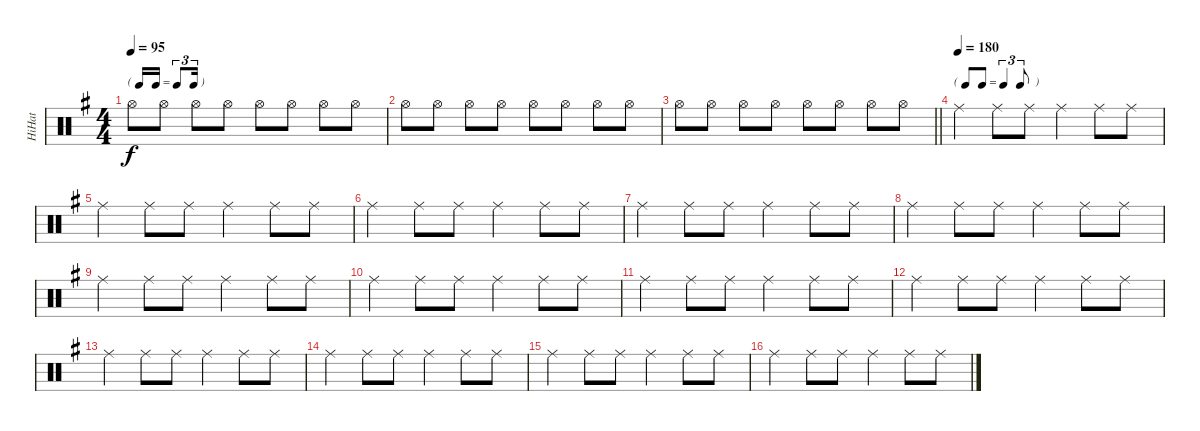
\track ("HiHat" "HiHat") {instrument percussion}
\staff {score}
\articulation defaults
\ts (4 4)
\tf triplet16th
\tempo 95
\clef neutral
\ks eminor "Hi-Hat (open)".8{dy f} "Hi-Hat (open)".8 "Hi-Hat (open)".8 "Hi-Hat (open)".8 "Hi-Hat (open)".8 "Hi-Hat (open)".8 "Hi-Hat (open)".8 "Hi-Hat (open)".8
|
"Hi-Hat (open)".8 "Hi-Hat (open)".8 "Hi-Hat (open)".8 "Hi-Hat (open)".8 "Hi-Hat (open)".8 "Hi-Hat (open)".8 "Hi-Hat (open)".8 "Hi-Hat (open)".8 |
\barLineRight lightlight "Hi-Hat (open)".8 "Hi-Hat (open)".8 "Hi-Hat (open)".8 "Hi-Hat (open)".8 "Hi-Hat (open)".8 "Hi-Hat (open)".8 "Hi-Hat (open)".8 "Hi-Hat (open)".8
|
\tf triplet8th
\tempo (180)
"Ride (middle)".4 "Ride (middle)".8 "Ride (middle)".8 "Ride (middle)".4 "Ride (middle)".8 "Ride (middle)".8 |
"Ride (middle)".4 "Ride (middle)".8 "Ride (middle)".8 "Ride (middle)".4 "Ride (middle)".8 "Ride (middle)".8 |
"Ride (middle)".4 "Ride (middle)".8 "Ride (middle)".8 "Ride (middle)".4 "Ride (middle)".8 "Ride (middle)".8 |
"Ride (middle)".4 "Ride (middle)".8 "Ride (middle)".8 "Ride (middle)".4 "Ride (middle)".8 "Ride (middle)".8 |
"Ride (middle)".4 "Ride (middle)".8 "Ride (middle)".8 "Ride (middle)".4 "Ride (middle)".8 "Ride (middle)".8 |
"Ride (middle)".4 "Ride (middle)".8 "Ride (middle)".8 "Ride (middle)".4 "Ride (middle)".8 "Ride (middle)".8 |
"Ride (middle)".4 "Ride (middle)".8 "Ride (middle)".8 "Ride (middle)".4 "Ride (middle)".8 "Ride (middle)".8 |
"Ride (middle)".4 "Ride (middle)".8 "Ride (middle)".8 "Ride (middle)".4 "Ride (middle)".8 "Ride (middle)".8 |
"Ride (middle)".4 "Ride (middle)".8 "Ride (middle)".8 "Ride (middle)".4 "Ride (middle)".8 "Ride (middle)".8 |
"Ride (middle)".4 "Ride (middle)".8 "Ride (middle)".8 "Ride (middle)".4 "Ride (middle)".8 "Ride (middle)".8 |
"Ride (middle)".4 "Ride (middle)".8 "Ride (middle)".8 "Ride (middle)".4 "Ride (middle)".8 "Ride (middle)".8 |
"Ride (middle)".4 "Ride (middle)".8 "Ride (middle)".8 "Ride (middle)".4 "Ride (middle)".8 "Ride (middle)".8 |
"Ride (middle)".4 "Ride (middle)".8 "Ride (middle)".8 "Ride (middle)".4 "Ride (middle)".8 "Ride (middle)".8
